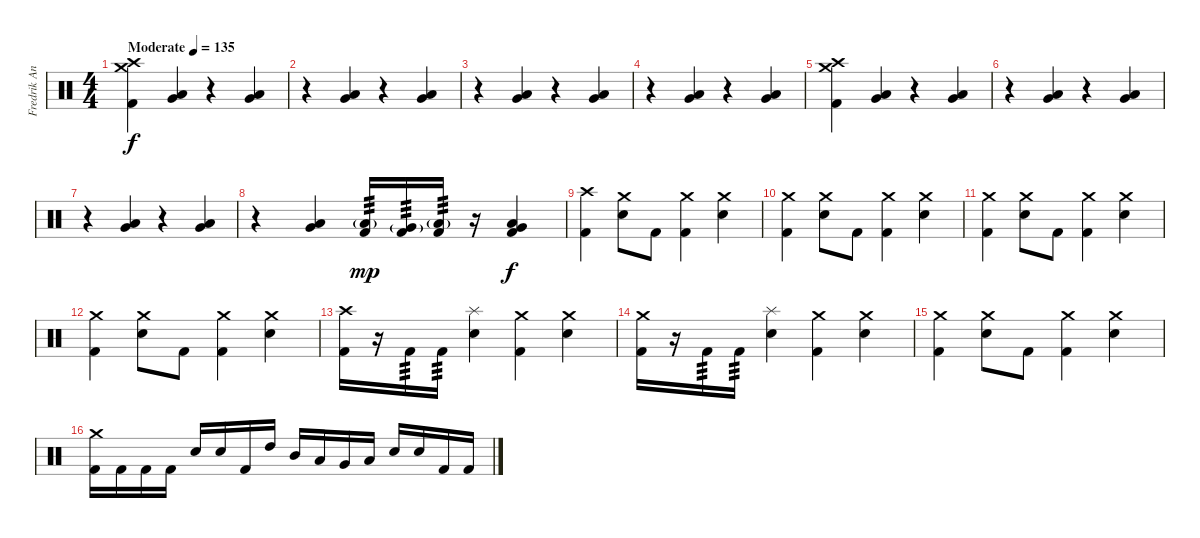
\track ("Fredrik Andersson" "Fredrik An") {instrument percussion}
\staff {score}
\articulation defaults
\ts (4 4)
\tempo (135 "Moderate")
\clef neutral
\ks c
("Kick (hit) 2" "Crash medium (hit)" "Crash high (hit)").4{dy f} ("Low Tom (hit)" "Very Low Tom (hit)").4 r.4 ("Low Tom (hit)" "Very Low Tom (hit)").4 |
r.4 ("Low Tom (hit)" "Very Low Tom (hit)").4 r.4 ("Low Tom (hit)" "Very Low Tom (hit)").4 |
r.4 ("Low Tom (hit)" "Very Low Tom (hit)").4 r.4 ("Low Tom (hit)" "Very Low Tom (hit)").4 |
r.4 ("Low Tom (hit)" "Very Low Tom (hit)").4 r.4 ("Low Tom (hit)" "Very Low Tom (hit)").4 |
("Kick (hit) 2" "Crash medium (hit)" "Crash high (hit)").4 ("Low Tom (hit)" "Very Low Tom (hit)").4 r.4 ("Low Tom (hit)" "Very Low Tom (hit)").4 |
r.4 ("Low Tom (hit)" "Very Low Tom (hit)").4 r.4 ("Low Tom (hit)" "Very Low Tom (hit)").4 |
r.4 ("Low Tom (hit)" "Very Low Tom (hit)").4 r.4 ("Low Tom (hit)" "Very Low Tom (hit)").4 |
r.4 ("Low Tom (hit)" "Very Low Tom (hit)").4 ("Kick (hit) 2" "Low Tom (hit)"{g}).16{tp 3 dy mp} ("Kick (hit) 2" "Very Low Tom (hit)"{g}).16{tp 3} ("Kick (hit) 2" "Low Floor Tom (hit)"{g}).16{tp 3} r.16 ("Kick (hit) 2" "Low Tom (hit)" "Very Low Tom (hit)").4{dy f} |
("Kick (hit) 2" "Crash high (hit)").4 ("Snare (hit) 2" "Crash medium (hit)").8 "Kick (hit) 2".8 ("Kick (hit) 2" "Crash medium (hit)").4 ("Snare (hit) 2" "Crash medium (hit)").4 |
("Kick (hit) 2" "Crash medium (hit)").4 ("Snare (hit) 2" "Crash medium (hit)").8 "Kick (hit) 2".8 ("Kick (hit) 2" "Crash medium (hit)").4 ("Snare (hit) 2" "Crash medium (hit)").4 |
("Kick (hit) 2" "Crash medium (hit)").4 ("Snare (hit) 2" "Crash medium (hit)").8 "Kick (hit) 2".8 ("Kick (hit) 2" "Crash medium (hit)").4 ("Snare (hit) 2" "Crash medium (hit)").4 |
("Kick (hit) 2" "Crash medium (hit)").4 ("Snare (hit) 2" "Crash medium (hit)").8 "Kick (hit) 2".8 ("Kick (hit) 2" "Crash medium (hit)").4 ("Snare (hit) 2" "Crash medium (hit)").4 |
("Kick (hit) 2" "Crash high (hit)").16 r.16 "Kick (hit) 2".16{tp 3} "Kick (hit) 2".16{tp 3} ("Snare (hit) 2" "Splash (hit)").4 ("Kick (hit) 2" "Crash medium (hit)").4 ("Snare (hit) 2" "Crash medium (hit)").4 |
("Kick (hit) 2" "Crash medium (hit)").16 r.16 "Kick (hit) 2".16{tp 3} "Kick (hit) 2".16{tp 3} ("Snare (hit) 2" "Splash (hit)").4 ("Kick (hit) 2" "Crash medium (hit)").4 ("Snare (hit) 2" "Crash medium (hit)").4 |
("Kick (hit) 2" "Crash medium (hit)").4 ("Snare (hit) 2" "Crash medium (hit)").8 "Kick (hit) 2".8 ("Kick (hit) 2" "Crash medium (hit)").4 ("Snare (hit) 2" "Crash medium (hit)").4 |
("Kick (hit) 2" "Crash medium (hit)").16 "Kick (hit) 2".16 "Kick (hit) 2".16 "Kick (hit) 2".16 "Snare (hit) 2".16 "Snare (hit) 2".16 "Kick (hit) 2".16 "High Tom (hit)".16 "Mid Tom (hit)".16 "Low Tom (hit)".16 "Very Low Tom (hit)".16 "Low Floor Tom (hit)".16 "Snare (hit) 2".16 "Snare (hit) 2".16 "Kick (hit) 2".16 "Kick (hit) 2".16
